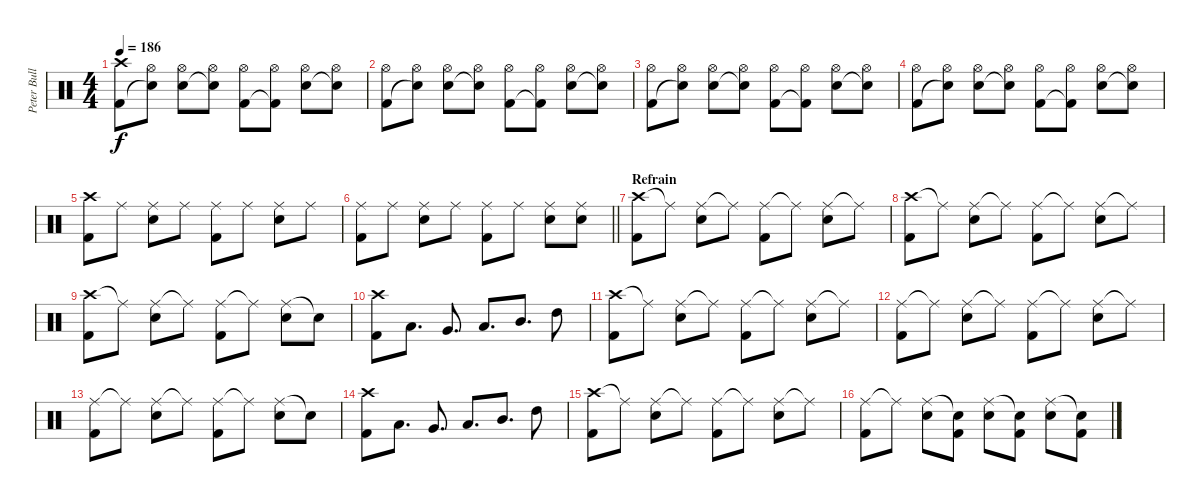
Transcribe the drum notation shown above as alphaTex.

\track ("Peter Bullrich" "Peter Bull") {instrument percussion}
\staff {score}
\articulation defaults
\ts (4 4)
\tempo 186
\clef neutral
\ks c
("Crash high (hit)" "Kick (hit) 2").8{dy f} ("Hi-Hat (open)" "Electric Snare (hit)"{t}).8 ("Hi-Hat (open)" "Electric Snare (hit)").8 ("Hi-Hat (open)" "Snare (hit)"{t}).8 ("Hi-Hat (open)" "Kick (hit) 2").8 ("Hi-Hat (open)" "Kick (hit) 2"{t}).8 ("Hi-Hat (open)" "Electric Snare (hit)").8 ("Hi-Hat (open)" "Electric Snare (hit)"{t}).8 |
("Hi-Hat (open)" "Kick (hit) 2").8 ("Hi-Hat (open)" "Electric Snare (hit)"{t}).8 ("Hi-Hat (open)" "Electric Snare (hit)").8 ("Hi-Hat (open)" "Snare (hit)"{t}).8 ("Hi-Hat (open)" "Kick (hit) 2").8 ("Hi-Hat (open)" "Kick (hit) 2"{t}).8 ("Hi-Hat (open)" "Electric Snare (hit)").8 ("Hi-Hat (open)" "Electric Snare (hit)"{t}).8 |
("Hi-Hat (open)" "Kick (hit) 2").8 ("Hi-Hat (open)" "Electric Snare (hit)"{t}).8 ("Hi-Hat (open)" "Electric Snare (hit)").8 ("Hi-Hat (open)" "Snare (hit)"{t}).8 ("Hi-Hat (open)" "Kick (hit) 2").8 ("Hi-Hat (open)" "Kick (hit) 2"{t}).8 ("Hi-Hat (open)" "Electric Snare (hit)").8 ("Hi-Hat (open)" "Electric Snare (hit)"{t}).8 |
("Hi-Hat (open)" "Kick (hit) 2").8 ("Hi-Hat (open)" "Electric Snare (hit)"{t}).8 ("Hi-Hat (open)" "Electric Snare (hit)").8 ("Hi-Hat (open)" "Snare (hit)"{t}).8 ("Hi-Hat (open)" "Kick (hit) 2").8 ("Hi-Hat (open)" "Kick (hit) 2"{t}).8 ("Hi-Hat (open)" "Electric Snare (hit)").8 ("Hi-Hat (open)" "Electric Snare (hit)"{t}).8 |
("Crash high (hit)" "Kick (hit) 2").8 "Ride (middle)".8 ("Ride (middle)" "Electric Snare (hit)").8 "Ride (middle)".8 ("Ride (middle)" "Kick (hit) 2").8 "Ride (middle)".8 ("Ride (middle)" "Electric Snare (hit)").8 "Ride (middle)".8 |
\barLineRight lightlight
("Ride (middle)" "Kick (hit) 2").8 "Ride (middle)".8 ("Ride (middle)" "Electric Snare (hit)").8 "Ride (middle)".8 ("Ride (middle)" "Kick (hit) 2").8 "Ride (middle)".8 ("Ride (middle)" "Electric Snare (hit)").8 ("Ride (middle)" "Electric Snare (hit)").8 |
\section ("" "Refrain")
("Crash high (hit)" "Kick (hit) 2").8 "Ride (middle)"{t}.8 ("Ride (middle)" "Electric Snare (hit)").8 "Ride (middle)"{t}.8 ("Ride (middle)" "Kick (hit) 2").8 "Ride (middle)"{t}.8 ("Ride (middle)" "Electric Snare (hit)").8 "Ride (middle)"{t}.8 |
("Crash high (hit)" "Kick (hit) 2").8 "Ride (middle)"{t}.8 ("Ride (middle)" "Electric Snare (hit)").8 "Ride (middle)"{t}.8 ("Ride (middle)" "Kick (hit) 2").8 "Ride (middle)"{t}.8 ("Ride (middle)" "Electric Snare (hit)").8 "Ride (middle)"{t}.8 |
("Crash high (hit)" "Kick (hit) 2").8 "Ride (middle)"{t}.8 ("Ride (middle)" "Electric Snare (hit)").8 "Ride (middle)"{t}.8 ("Ride (middle)" "Kick (hit) 2").8 "Ride (middle)"{t}.8 ("Ride (middle)" "Electric Snare (hit)").8 "Snare (hit)"{t}.8 |
("Crash high (hit)" "Kick (hit) 2").8 "Low Floor Tom (hit)".8{d} "Very Low Tom (hit)".8{d} "Low Tom (hit)".8{d} "Mid Tom (hit)".8{d} "High Tom (hit)".8 |
("Crash high (hit)" "Kick (hit) 2").8 "Ride (middle)"{t}.8 ("Ride (middle)" "Electric Snare (hit)").8 "Ride (middle)"{t}.8 ("Ride (middle)" "Kick (hit) 2").8 "Ride (middle)"{t}.8 ("Ride (middle)" "Electric Snare (hit)").8 "Ride (middle)"{t}.8 |
("Ride (middle)" "Kick (hit) 2").8 "Ride (middle)"{t}.8 ("Ride (middle)" "Electric Snare (hit)").8 "Ride (middle)"{t}.8 ("Ride (middle)" "Kick (hit) 2").8 "Ride (middle)"{t}.8 ("Ride (middle)" "Electric Snare (hit)").8 "Ride (middle)"{t}.8 |
("Ride (middle)" "Kick (hit) 2").8 "Ride (middle)"{t}.8 ("Ride (middle)" "Electric Snare (hit)").8 "Ride (middle)"{t}.8 ("Ride (middle)" "Kick (hit) 2").8 "Ride (middle)"{t}.8 ("Ride (middle)" "Electric Snare (hit)").8 "Snare (hit)"{t}.8 |
("Crash high (hit)" "Kick (hit) 2").8 "Low Floor Tom (hit)".8{d} "Very Low Tom (hit)".8{d} "Low Tom (hit)".8{d} "Mid Tom (hit)".8{d} "High Tom (hit)".8 |
("Crash high (hit)" "Kick (hit) 2").8 "Ride (middle)"{t}.8 ("Ride (middle)" "Electric Snare (hit)").8 "Ride (middle)"{t}.8 ("Ride (middle)" "Kick (hit) 2").8 "Ride (middle)"{t}.8 ("Ride (middle)" "Electric Snare (hit)").8 "Ride (middle)"{t}.8 |
("Ride (middle)" "Kick (hit) 2").8 "Ride (middle)"{t}.8 ("Ride (middle)" "Electric Snare (hit)").8 ("Snare (hit)"{t} "Kick (hit) 2").8 ("Ride (middle)" "Electric Snare (hit)").8 ("Snare (hit)"{t} "Kick (hit) 2").8 ("Ride (middle)" "Electric Snare (hit)").8 ("Snare (hit)"{t} "Kick (hit) 2").8
